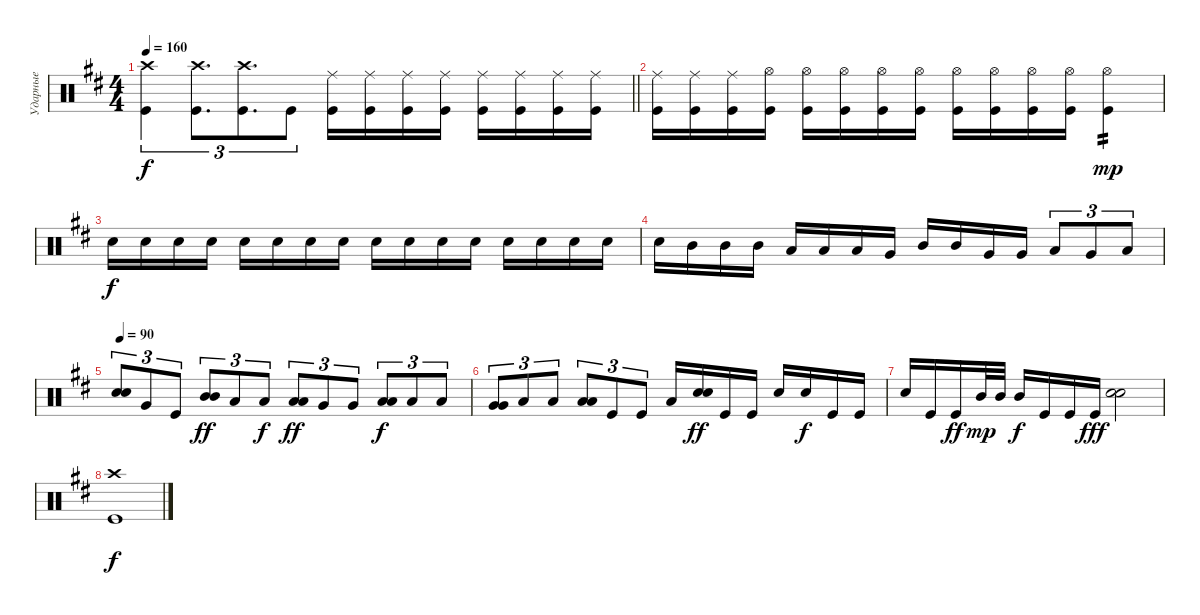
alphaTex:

\track ("Ударные" "Ударные") {instrument percussion}
\staff {score}
\articulation defaults
\ts (4 4)
\tempo 160
\clef neutral
\barLineRight lightlight
\ks bminor
("Kick (hit)" "Crash high (hit)").4{tu (3 2) dy f} ("Kick (hit)" "Crash high (hit)").8{d tu (3 2)} ("Kick (hit)" "Crash high (hit)").8{d tu (3 2)} "Kick (hit)".8{tu (3 2)} ("Kick (hit)" "Ride (middle)").16 ("Kick (hit)" "Ride (middle)").16 ("Kick (hit)" "Ride (middle)").16 ("Kick (hit)" "Ride (middle)").16 ("Kick (hit)" "Ride (middle)").16 ("Kick (hit)" "Ride (middle)").16 ("Kick (hit)" "Ride (middle)").16 ("Kick (hit)" "Ride (middle)").16 |
("Kick (hit)" "Ride (middle)").16 ("Kick (hit)" "Ride (middle)").16 ("Kick (hit)" "Ride (middle)").16 ("Kick (hit)" "Hi-Hat (open)").16 ("Kick (hit)" "Hi-Hat (open)").16 ("Kick (hit)" "Hi-Hat (open)").16 ("Kick (hit)" "Hi-Hat (open)").16 ("Kick (hit)" "Hi-Hat (open)").16 ("Kick (hit)" "Hi-Hat (open)").16 ("Kick (hit)" "Hi-Hat (open)").16 ("Kick (hit)" "Hi-Hat (open)").16 ("Kick (hit)" "Hi-Hat (open)").16 ("Hi-Hat (open)" "Kick (hit)").4{tp 2 dy mp} |
"Snare (hit) 2".16{dy f} "Snare (hit) 2".16 "Snare (hit) 2".16 "Snare (hit) 2".16 "Snare (hit) 2".16 "Snare (hit) 2".16 "Snare (hit) 2".16 "Snare (hit) 2".16 "Snare (hit) 2".16 "Snare (hit) 2".16 "Snare (hit) 2".16 "Snare (hit) 2".16 "Snare (hit) 2".16 "Snare (hit) 2".16 "Snare (hit) 2".16 "Snare (hit) 2".16 |
"Snare (hit) 2".16 "Mid Tom (hit)".16 "Mid Tom (hit)".16 "Mid Tom (hit)".16 "Low Tom (hit)".16 "Low Tom (hit)".16 "Low Tom (hit)".16 "Very Low Tom (hit)".16 "Mid Tom (hit)".16 "Mid Tom (hit)".16 "Very Low Tom (hit)".16 "Very Low Tom (hit)".16 "Low Tom (hit)".8{tu (3 2)} "Very Low Tom (hit)".8{tu (3 2)} "Low Floor Tom (hit)".8{tu (3 2)} |
\tempo 90
("Snare (hit) 2" "Snare (hit) 2").8{tu (3 2) bd 480} "Very Low Tom (hit)".8{tu (3 2)} "Kick (hit)".8{tu (3 2)} ("Mid Tom (hit)" "Mid Tom (hit)").8{tu (3 2) bd 240 dy ff} "Low Tom (hit)".8{tu (3 2)} "Low Tom (hit)".8{tu (3 2) dy f} ("Low Tom (hit)" "Low Tom (hit)").8{tu (3 2) bd 480 dy ff} "Very Low Tom (hit)".8{tu (3 2)} "Very Low Tom (hit)".8{tu (3 2)} ("Low Tom (hit)" "Low Tom (hit)").8{tu (3 2) bd 480 dy f} "Low Floor Tom (hit)".8{tu (3 2)} "Low Floor Tom (hit)".8{tu (3 2)} |
("Very Low Tom (hit)" "Very Low Tom (hit)").8{tu (3 2) bd 480} "Low Floor Tom (hit)".8{tu (3 2)} "Low Floor Tom (hit)".8{tu (3 2)} ("Low Floor Tom (hit)" "Low Floor Tom (hit)").8{tu (3 2) bd 480} "Kick (hit)".8{tu (3 2)} "Kick (hit)".8{tu (3 2)} "Low Floor Tom (hit)".16 ("Snare (hit) 2" "Snare (hit) 2").16{bd 480 dy ff} "Kick (hit)".16 "Kick (hit)".16 "Snare (hit) 2".16 "Snare (hit) 2".16{dy f} "Kick (hit)".16 "Kick (hit)".16 |
"Snare (hit) 2".16 "Kick (hit)".16 "Kick (hit)".16{dy ff} "Mid Tom (hit)".32{dy mp} "Mid Tom (hit)".32 "Mid Tom (hit)".16{dy f} "Kick (hit)".16 "Kick (hit)".16 "Kick (hit)".16{dy fff} ("Snare (hit) 2" "Snare (hit) 2").2{bd 240} |
("Kick (hit)" "Crash high (hit)").1{dy f}
